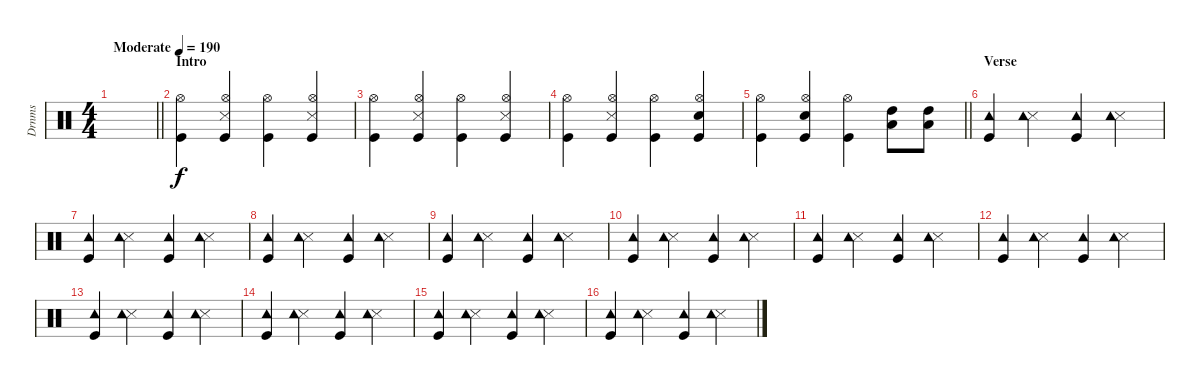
\track ("Drnms" "Drnms") {instrument percussion}
\staff {score}
\articulation defaults
\ts (4 4)
\tempo (190 "Moderate")
\clef neutral
\barLineRight lightlight
\ks c
|
\section ("" "Intro")
("Kick (hit)" "Hi-Hat (open)").4 ("Kick (hit)" "Snare (side stick) 3" "Hi-Hat (open)").4 ("Kick (hit)" "Hi-Hat (open)").4 ("Kick (hit)" "Snare (side stick) 3" "Hi-Hat (open)").4 |
("Kick (hit)" "Hi-Hat (open)").4 ("Kick (hit)" "Snare (side stick) 3" "Hi-Hat (open)").4 ("Kick (hit)" "Hi-Hat (open)").4 ("Kick (hit)" "Snare (side stick) 3" "Hi-Hat (open)").4 |
("Kick (hit)" "Hi-Hat (open)").4 ("Kick (hit)" "Snare (side stick) 3" "Hi-Hat (open)").4 ("Kick (hit)" "Hi-Hat (open)").4 ("Kick (hit)" "Snare (hit) 2" "Hi-Hat (open)").4 |
\barLineRight lightlight
("Kick (hit)" "Hi-Hat (open)").4 ("Kick (hit)" "Snare (hit) 2" "Hi-Hat (open)").4 ("Kick (hit)" "Hi-Hat (open)").4 ("High Tom (hit)" "Low Tom (hit)").8 ("High Tom (hit)" "Low Tom (hit)").8 |
\section ("" "Verse")
("Kick (hit)" "Tambourine (hit)").4 ("Snare (side stick) 3" "Tambourine (hit)").4 ("Kick (hit)" "Tambourine (hit)").4 ("Snare (side stick) 3" "Tambourine (hit)").4 |
("Kick (hit)" "Tambourine (hit)").4 ("Snare (side stick) 3" "Tambourine (hit)").4 ("Kick (hit)" "Tambourine (hit)").4 ("Snare (side stick) 3" "Tambourine (hit)").4 |
("Kick (hit)" "Tambourine (hit)").4 ("Snare (side stick) 3" "Tambourine (hit)").4 ("Kick (hit)" "Tambourine (hit)").4 ("Snare (side stick) 3" "Tambourine (hit)").4 |
("Kick (hit)" "Tambourine (hit)").4 ("Snare (side stick) 3" "Tambourine (hit)").4 ("Kick (hit)" "Tambourine (hit)").4 ("Snare (side stick) 3" "Tambourine (hit)").4 |
("Kick (hit)" "Tambourine (hit)").4 ("Snare (side stick) 3" "Tambourine (hit)").4 ("Kick (hit)" "Tambourine (hit)").4 ("Snare (side stick) 3" "Tambourine (hit)").4 |
("Kick (hit)" "Tambourine (hit)").4 ("Snare (side stick) 3" "Tambourine (hit)").4 ("Kick (hit)" "Tambourine (hit)").4 ("Snare (side stick) 3" "Tambourine (hit)").4 |
("Kick (hit)" "Tambourine (hit)").4 ("Snare (side stick) 3" "Tambourine (hit)").4 ("Kick (hit)" "Tambourine (hit)").4 ("Snare (side stick) 3" "Tambourine (hit)").4 |
("Kick (hit)" "Tambourine (hit)").4 ("Snare (side stick) 3" "Tambourine (hit)").4 ("Kick (hit)" "Tambourine (hit)").4 ("Snare (side stick) 3" "Tambourine (hit)").4 |
("Kick (hit)" "Tambourine (hit)").4 ("Snare (side stick) 3" "Tambourine (hit)").4 ("Kick (hit)" "Tambourine (hit)").4 ("Snare (side stick) 3" "Tambourine (hit)").4 |
("Kick (hit)" "Tambourine (hit)").4 ("Snare (side stick) 3" "Tambourine (hit)").4 ("Kick (hit)" "Tambourine (hit)").4 ("Snare (side stick) 3" "Tambourine (hit)").4 |
("Kick (hit)" "Tambourine (hit)").4 ("Snare (side stick) 3" "Tambourine (hit)").4 ("Kick (hit)" "Tambourine (hit)").4 ("Snare (side stick) 3" "Tambourine (hit)").4
